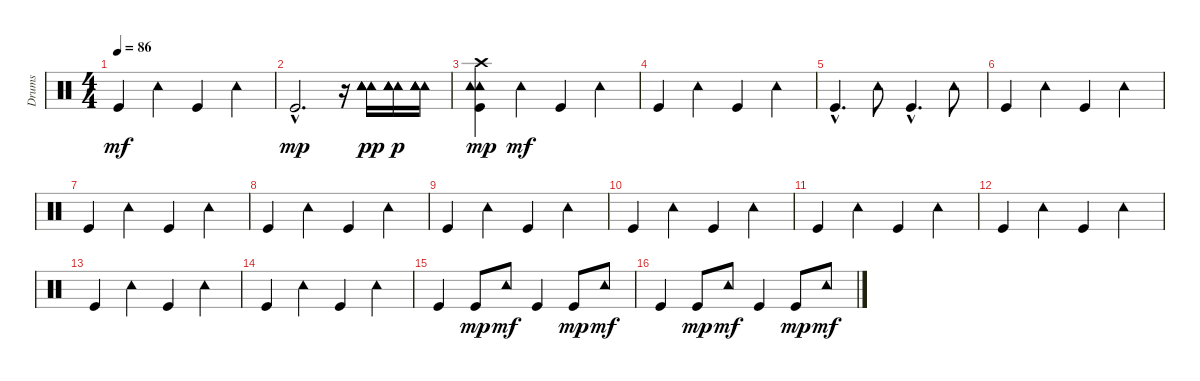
\track ("Drums" "Drums") {instrument percussion}
\staff {score}
\articulation defaults
\ts (4 4)
\tempo 86
\clef neutral
\ks c "Kick (hit)".4{dy mf} "Tambourine (hit)".4 "Kick (hit)".4 "Tambourine (hit)".4
|
"Kick (hit)"{hac}.2{d dy mp} r.16 ("Tambourine (hit)" "Tambourine (hit)" "Tambourine (hit)" "Tambourine (hit)").16{dy pp} ("Tambourine (hit)" "Tambourine (hit)" "Tambourine (hit)" "Tambourine (hit)").16{dy p} ("Tambourine (hit)" "Tambourine (hit)" "Tambourine (hit)" "Tambourine (hit)").16 |
("Tambourine (hit)" "Tambourine (hit)" "Kick (hit)" "Crash high (hit)").4{dy mp} "Tambourine (hit)".4{dy mf} "Kick (hit)".4 "Tambourine (hit)".4 |
"Kick (hit)".4 "Tambourine (hit)".4 "Kick (hit)".4 "Tambourine (hit)".4 |
"Kick (hit)"{hac}.4{d} "Tambourine (hit)".8 "Kick (hit)"{hac}.4{d} "Tambourine (hit)".8 |
"Kick (hit)".4 "Tambourine (hit)".4 "Kick (hit)".4 "Tambourine (hit)".4 |
"Kick (hit)".4 "Tambourine (hit)".4 "Kick (hit)".4 "Tambourine (hit)".4 |
"Kick (hit)".4 "Tambourine (hit)".4 "Kick (hit)".4 "Tambourine (hit)".4 |
"Kick (hit)".4 "Tambourine (hit)".4 "Kick (hit)".4 "Tambourine (hit)".4 |
"Kick (hit)".4 "Tambourine (hit)".4 "Kick (hit)".4 "Tambourine (hit)".4 |
"Kick (hit)".4 "Tambourine (hit)".4 "Kick (hit)".4 "Tambourine (hit)".4 |
"Kick (hit)".4 "Tambourine (hit)".4 "Kick (hit)".4 "Tambourine (hit)".4 |
"Kick (hit)".4 "Tambourine (hit)".4 "Kick (hit)".4 "Tambourine (hit)".4 |
"Kick (hit)".4 "Tambourine (hit)".4 "Kick (hit)".4 "Tambourine (hit)".4 |
"Kick (hit)".4 "Kick (hit)".8{dy mp} "Tambourine (hit)".8{dy mf} "Kick (hit)".4 "Kick (hit)".8{dy mp} "Tambourine (hit)".8{dy mf} |
"Kick (hit)".4 "Kick (hit)".8{dy mp} "Tambourine (hit)".8{dy mf} "Kick (hit)".4 "Kick (hit)".8{dy mp} "Tambourine (hit)".8{dy mf}
